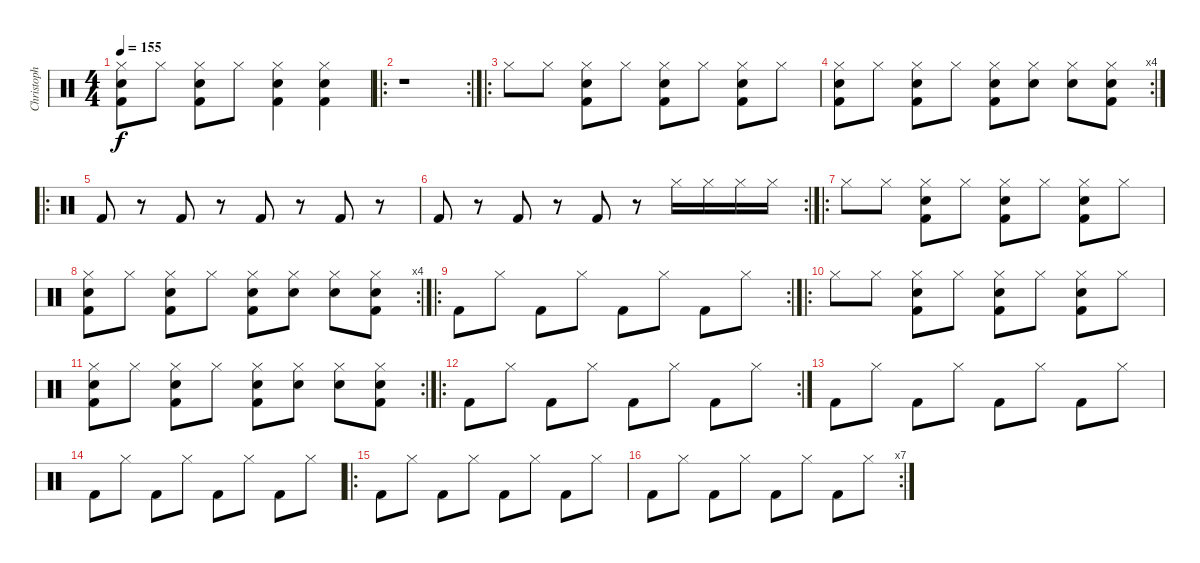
\track ("Christoph Schneider" "Christoph ") {instrument percussion}
\staff {score}
\articulation defaults
\ts (4 4)
\tempo 155
\clef neutral
\ks c
("Hi-Hat (closed)" "Snare (hit) 2" "Kick (hit) 2").8{dy f} "Hi-Hat (closed)".8 ("Hi-Hat (closed)" "Snare (hit) 2" "Kick (hit) 2").8 "Hi-Hat (closed)".8 ("Hi-Hat (closed)" "Snare (hit) 2" "Kick (hit) 2").4 ("Hi-Hat (closed)" "Snare (hit) 2" "Kick (hit) 2").4 |
\ro
\rc 2
r.1 |
\ro "Hi-Hat (closed)".8 "Hi-Hat (closed)".8
("Hi-Hat (closed)" "Snare (hit) 2" "Kick (hit) 2").8 "Hi-Hat (closed)".8 ("Hi-Hat (closed)" "Snare (hit) 2" "Kick (hit) 2").8 "Hi-Hat (closed)".8 ("Hi-Hat (closed)" "Snare (hit) 2" "Kick (hit) 2").8 "Hi-Hat (closed)".8 |
\rc 4
("Hi-Hat (closed)" "Snare (hit) 2" "Kick (hit) 2").8 "Hi-Hat (closed)".8 ("Hi-Hat (closed)" "Snare (hit) 2" "Kick (hit) 2").8 "Hi-Hat (closed)".8 ("Hi-Hat (closed)" "Snare (hit) 2" "Kick (hit) 2").8 ("Hi-Hat (closed)" "Snare (hit) 2").8 ("Hi-Hat (closed)" "Snare (hit) 2").8 ("Hi-Hat (closed)" "Snare (hit) 2" "Kick (hit) 2").8 |
\ro "Kick (hit) 2".8
r.8 "Kick (hit) 2".8 r.8 "Kick (hit) 2".8 r.8 "Kick (hit) 2".8 r.8 |
\rc 2 "Kick (hit) 2".8
r.8 "Kick (hit) 2".8 r.8 "Kick (hit) 2".8 r.8 "Hi-Hat (closed)".16 "Hi-Hat (closed)".16 "Hi-Hat (closed)".16 "Hi-Hat (closed)".16 |
\ro "Hi-Hat (closed)".8 "Hi-Hat (closed)".8
("Hi-Hat (closed)" "Snare (hit) 2" "Kick (hit) 2").8 "Hi-Hat (closed)".8 ("Hi-Hat (closed)" "Snare (hit) 2" "Kick (hit) 2").8 "Hi-Hat (closed)".8 ("Hi-Hat (closed)" "Snare (hit) 2" "Kick (hit) 2").8 "Hi-Hat (closed)".8 |
\rc 4
("Hi-Hat (closed)" "Snare (hit) 2" "Kick (hit) 2").8 "Hi-Hat (closed)".8 ("Hi-Hat (closed)" "Snare (hit) 2" "Kick (hit) 2").8 "Hi-Hat (closed)".8 ("Hi-Hat (closed)" "Snare (hit) 2" "Kick (hit) 2").8 ("Hi-Hat (closed)" "Snare (hit) 2").8 ("Hi-Hat (closed)" "Snare (hit) 2").8 ("Hi-Hat (closed)" "Snare (hit) 2" "Kick (hit) 2").8 |
\ro
\rc 2 "Kick (hit) 2".8 "Hi-Hat (closed)".8 "Kick (hit) 2".8 "Hi-Hat (closed)".8 "Kick (hit) 2".8 "Hi-Hat (closed)".8 "Kick (hit) 2".8 "Hi-Hat (closed)".8
|
\ro "Hi-Hat (closed)".8 "Hi-Hat (closed)".8
("Hi-Hat (closed)" "Snare (hit) 2" "Kick (hit) 2").8 "Hi-Hat (closed)".8 ("Hi-Hat (closed)" "Snare (hit) 2" "Kick (hit) 2").8 "Hi-Hat (closed)".8 ("Hi-Hat (closed)" "Snare (hit) 2" "Kick (hit) 2").8 "Hi-Hat (closed)".8 |
\rc 2
("Hi-Hat (closed)" "Snare (hit) 2" "Kick (hit) 2").8 "Hi-Hat (closed)".8 ("Hi-Hat (closed)" "Snare (hit) 2" "Kick (hit) 2").8 "Hi-Hat (closed)".8 ("Hi-Hat (closed)" "Snare (hit) 2" "Kick (hit) 2").8 ("Hi-Hat (closed)" "Snare (hit) 2").8 ("Hi-Hat (closed)" "Snare (hit) 2").8 ("Hi-Hat (closed)" "Snare (hit) 2" "Kick (hit) 2").8 |
\ro
\rc 2 "Kick (hit) 2".8 "Hi-Hat (closed)".8 "Kick (hit) 2".8 "Hi-Hat (closed)".8 "Kick (hit) 2".8 "Hi-Hat (closed)".8 "Kick (hit) 2".8 "Hi-Hat (closed)".8
|
"Kick (hit) 2".8 "Hi-Hat (closed)".8 "Kick (hit) 2".8 "Hi-Hat (closed)".8 "Kick (hit) 2".8 "Hi-Hat (closed)".8 "Kick (hit) 2".8 "Hi-Hat (closed)".8 |
"Kick (hit) 2".8 "Hi-Hat (closed)".8 "Kick (hit) 2".8 "Hi-Hat (closed)".8 "Kick (hit) 2".8 "Hi-Hat (closed)".8 "Kick (hit) 2".8 "Hi-Hat (closed)".8 |
\ro "Kick (hit) 2".8 "Hi-Hat (closed)".8 "Kick (hit) 2".8 "Hi-Hat (closed)".8 "Kick (hit) 2".8 "Hi-Hat (closed)".8 "Kick (hit) 2".8 "Hi-Hat (closed)".8
|
\rc 7 "Kick (hit) 2".8 "Hi-Hat (closed)".8 "Kick (hit) 2".8 "Hi-Hat (closed)".8 "Kick (hit) 2".8 "Hi-Hat (closed)".8 "Kick (hit) 2".8 "Hi-Hat (closed)".8
